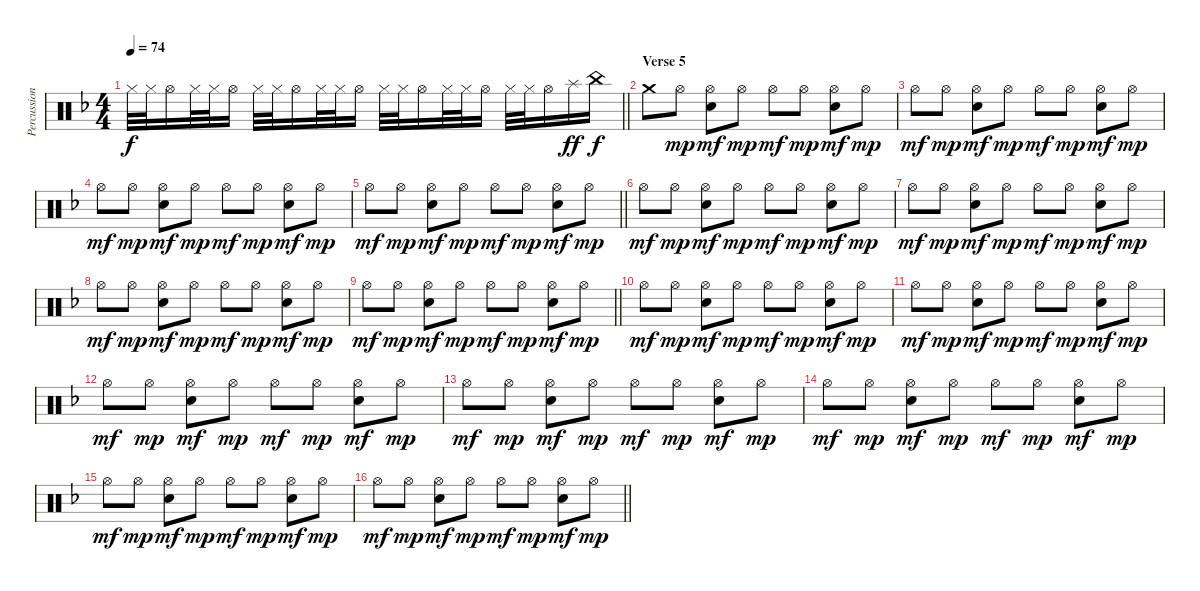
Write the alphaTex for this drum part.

\track ("Percussion" "Percussion") {instrument percussion}
\staff {score}
\articulation defaults
\ts (4 4)
\tempo 74
\clef neutral
\barLineRight lightlight
\ks f "Hi-Hat (closed)".32{dy f} "Hi-Hat (closed)".32 "Hi-Hat (open)".16 "Hi-Hat (closed)".32 "Hi-Hat (closed)".32 "Hi-Hat (open)".16 "Hi-Hat (closed)".32 "Hi-Hat (closed)".32 "Hi-Hat (open)".16 "Hi-Hat (closed)".32 "Hi-Hat (closed)".32 "Hi-Hat (open)".16 "Hi-Hat (closed)".32 "Hi-Hat (closed)".32 "Hi-Hat (open)".16 "Hi-Hat (closed)".32 "Hi-Hat (closed)".32 "Hi-Hat (open)".16 "Hi-Hat (closed)".32 "Hi-Hat (closed)".32 "Hi-Hat (open)".16 "Splash (hit)".16{dy ff} "China (hit)".16{dy f}
|
\section ("" "Verse 5")
"Crash medium (hit)".8 "Hi-Hat (open)".8{dy mp} ("Hi-Hat (open)" "Electric Snare (hit)").8{dy mf} "Hi-Hat (open)".8{dy mp} "Hi-Hat (open)".8{dy mf} "Hi-Hat (open)".8{dy mp} ("Hi-Hat (open)" "Electric Snare (hit)").8{dy mf} "Hi-Hat (open)".8{dy mp} |
"Hi-Hat (open)".8{dy mf} "Hi-Hat (open)".8{dy mp} ("Hi-Hat (open)" "Electric Snare (hit)").8{dy mf} "Hi-Hat (open)".8{dy mp} "Hi-Hat (open)".8{dy mf} "Hi-Hat (open)".8{dy mp} ("Hi-Hat (open)" "Electric Snare (hit)").8{dy mf} "Hi-Hat (open)".8{dy mp} |
"Hi-Hat (open)".8{dy mf} "Hi-Hat (open)".8{dy mp} ("Hi-Hat (open)" "Electric Snare (hit)").8{dy mf} "Hi-Hat (open)".8{dy mp} "Hi-Hat (open)".8{dy mf} "Hi-Hat (open)".8{dy mp} ("Hi-Hat (open)" "Electric Snare (hit)").8{dy mf} "Hi-Hat (open)".8{dy mp} |
\barLineRight lightlight "Hi-Hat (open)".8{dy mf} "Hi-Hat (open)".8{dy mp}
("Hi-Hat (open)" "Electric Snare (hit)").8{dy mf} "Hi-Hat (open)".8{dy mp} "Hi-Hat (open)".8{dy mf} "Hi-Hat (open)".8{dy mp} ("Hi-Hat (open)" "Electric Snare (hit)").8{dy mf} "Hi-Hat (open)".8{dy mp} |
"Hi-Hat (open)".8{dy mf} "Hi-Hat (open)".8{dy mp} ("Hi-Hat (open)" "Electric Snare (hit)").8{dy mf} "Hi-Hat (open)".8{dy mp} "Hi-Hat (open)".8{dy mf} "Hi-Hat (open)".8{dy mp} ("Hi-Hat (open)" "Electric Snare (hit)").8{dy mf} "Hi-Hat (open)".8{dy mp} |
"Hi-Hat (open)".8{dy mf} "Hi-Hat (open)".8{dy mp} ("Hi-Hat (open)" "Electric Snare (hit)").8{dy mf} "Hi-Hat (open)".8{dy mp} "Hi-Hat (open)".8{dy mf} "Hi-Hat (open)".8{dy mp} ("Hi-Hat (open)" "Electric Snare (hit)").8{dy mf} "Hi-Hat (open)".8{dy mp} |
"Hi-Hat (open)".8{dy mf} "Hi-Hat (open)".8{dy mp} ("Hi-Hat (open)" "Electric Snare (hit)").8{dy mf} "Hi-Hat (open)".8{dy mp} "Hi-Hat (open)".8{dy mf} "Hi-Hat (open)".8{dy mp} ("Hi-Hat (open)" "Electric Snare (hit)").8{dy mf} "Hi-Hat (open)".8{dy mp} |
\barLineRight lightlight "Hi-Hat (open)".8{dy mf} "Hi-Hat (open)".8{dy mp}
("Hi-Hat (open)" "Electric Snare (hit)").8{dy mf} "Hi-Hat (open)".8{dy mp} "Hi-Hat (open)".8{dy mf} "Hi-Hat (open)".8{dy mp} ("Hi-Hat (open)" "Electric Snare (hit)").8{dy mf} "Hi-Hat (open)".8{dy mp} |
"Hi-Hat (open)".8{dy mf} "Hi-Hat (open)".8{dy mp} ("Hi-Hat (open)" "Electric Snare (hit)").8{dy mf} "Hi-Hat (open)".8{dy mp} "Hi-Hat (open)".8{dy mf} "Hi-Hat (open)".8{dy mp} ("Hi-Hat (open)" "Electric Snare (hit)").8{dy mf} "Hi-Hat (open)".8{dy mp} |
"Hi-Hat (open)".8{dy mf} "Hi-Hat (open)".8{dy mp} ("Hi-Hat (open)" "Electric Snare (hit)").8{dy mf} "Hi-Hat (open)".8{dy mp} "Hi-Hat (open)".8{dy mf} "Hi-Hat (open)".8{dy mp} ("Hi-Hat (open)" "Electric Snare (hit)").8{dy mf} "Hi-Hat (open)".8{dy mp} |
"Hi-Hat (open)".8{dy mf} "Hi-Hat (open)".8{dy mp} ("Hi-Hat (open)" "Electric Snare (hit)").8{dy mf} "Hi-Hat (open)".8{dy mp} "Hi-Hat (open)".8{dy mf} "Hi-Hat (open)".8{dy mp} ("Hi-Hat (open)" "Electric Snare (hit)").8{dy mf} "Hi-Hat (open)".8{dy mp} |
"Hi-Hat (open)".8{dy mf} "Hi-Hat (open)".8{dy mp} ("Hi-Hat (open)" "Electric Snare (hit)").8{dy mf} "Hi-Hat (open)".8{dy mp} "Hi-Hat (open)".8{dy mf} "Hi-Hat (open)".8{dy mp} ("Hi-Hat (open)" "Electric Snare (hit)").8{dy mf} "Hi-Hat (open)".8{dy mp} |
"Hi-Hat (open)".8{dy mf} "Hi-Hat (open)".8{dy mp} ("Hi-Hat (open)" "Electric Snare (hit)").8{dy mf} "Hi-Hat (open)".8{dy mp} "Hi-Hat (open)".8{dy mf} "Hi-Hat (open)".8{dy mp} ("Hi-Hat (open)" "Electric Snare (hit)").8{dy mf} "Hi-Hat (open)".8{dy mp} |
"Hi-Hat (open)".8{dy mf} "Hi-Hat (open)".8{dy mp} ("Hi-Hat (open)" "Electric Snare (hit)").8{dy mf} "Hi-Hat (open)".8{dy mp} "Hi-Hat (open)".8{dy mf} "Hi-Hat (open)".8{dy mp} ("Hi-Hat (open)" "Electric Snare (hit)").8{dy mf} "Hi-Hat (open)".8{dy mp} |
\barLineRight lightlight "Hi-Hat (open)".8{dy mf} "Hi-Hat (open)".8{dy mp}
("Hi-Hat (open)" "Electric Snare (hit)").8{dy mf} "Hi-Hat (open)".8{dy mp} "Hi-Hat (open)".8{dy mf} "Hi-Hat (open)".8{dy mp} ("Hi-Hat (open)" "Electric Snare (hit)").8{dy mf} "Hi-Hat (open)".8{dy mp}
